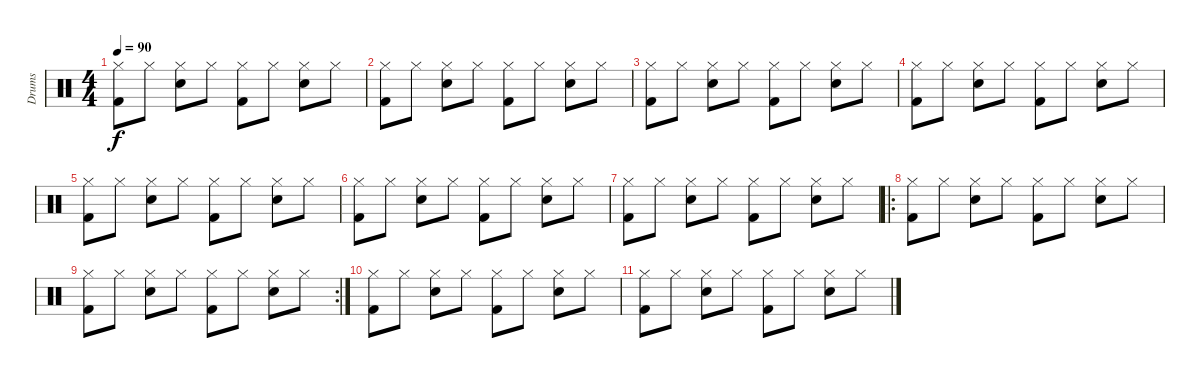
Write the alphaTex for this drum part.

\track ("Drums" "Drums") {instrument percussion}
\staff {score}
\articulation defaults
\ts (4 4)
\tempo 90
\clef neutral
\ks c
("Hi-Hat (closed)" "Kick (hit) 2").8{dy f} "Hi-Hat (closed)".8 ("Hi-Hat (closed)" "Snare (hit) 2").8 "Hi-Hat (closed)".8 ("Hi-Hat (closed)" "Kick (hit) 2").8 "Hi-Hat (closed)".8 ("Hi-Hat (closed)" "Snare (hit) 2").8 "Hi-Hat (closed)".8 |
("Hi-Hat (closed)" "Kick (hit) 2").8 "Hi-Hat (closed)".8 ("Hi-Hat (closed)" "Snare (hit) 2").8 "Hi-Hat (closed)".8 ("Hi-Hat (closed)" "Kick (hit) 2").8 "Hi-Hat (closed)".8 ("Hi-Hat (closed)" "Snare (hit) 2").8 "Hi-Hat (closed)".8 |
("Hi-Hat (closed)" "Kick (hit) 2").8 "Hi-Hat (closed)".8 ("Hi-Hat (closed)" "Snare (hit) 2").8 "Hi-Hat (closed)".8 ("Hi-Hat (closed)" "Kick (hit) 2").8 "Hi-Hat (closed)".8 ("Hi-Hat (closed)" "Snare (hit) 2").8 "Hi-Hat (closed)".8 |
("Hi-Hat (closed)" "Kick (hit) 2").8 "Hi-Hat (closed)".8 ("Hi-Hat (closed)" "Snare (hit) 2").8 "Hi-Hat (closed)".8 ("Hi-Hat (closed)" "Kick (hit) 2").8 "Hi-Hat (closed)".8 ("Hi-Hat (closed)" "Snare (hit) 2").8 "Hi-Hat (closed)".8 |
("Hi-Hat (closed)" "Kick (hit) 2").8 "Hi-Hat (closed)".8 ("Hi-Hat (closed)" "Snare (hit) 2").8 "Hi-Hat (closed)".8 ("Hi-Hat (closed)" "Kick (hit) 2").8 "Hi-Hat (closed)".8 ("Hi-Hat (closed)" "Snare (hit) 2").8 "Hi-Hat (closed)".8 |
("Hi-Hat (closed)" "Kick (hit) 2").8 "Hi-Hat (closed)".8 ("Hi-Hat (closed)" "Snare (hit) 2").8 "Hi-Hat (closed)".8 ("Hi-Hat (closed)" "Kick (hit) 2").8 "Hi-Hat (closed)".8 ("Hi-Hat (closed)" "Snare (hit) 2").8 "Hi-Hat (closed)".8 |
("Hi-Hat (closed)" "Kick (hit) 2").8 "Hi-Hat (closed)".8 ("Hi-Hat (closed)" "Snare (hit) 2").8 "Hi-Hat (closed)".8 ("Hi-Hat (closed)" "Kick (hit) 2").8 "Hi-Hat (closed)".8 ("Hi-Hat (closed)" "Snare (hit) 2").8 "Hi-Hat (closed)".8 |
\ro
("Hi-Hat (closed)" "Kick (hit) 2").8 "Hi-Hat (closed)".8 ("Hi-Hat (closed)" "Snare (hit) 2").8 "Hi-Hat (closed)".8 ("Hi-Hat (closed)" "Kick (hit) 2").8 "Hi-Hat (closed)".8 ("Hi-Hat (closed)" "Snare (hit) 2").8 "Hi-Hat (closed)".8 |
\rc 2
("Hi-Hat (closed)" "Kick (hit) 2").8 "Hi-Hat (closed)".8 ("Hi-Hat (closed)" "Snare (hit) 2").8 "Hi-Hat (closed)".8 ("Hi-Hat (closed)" "Kick (hit) 2").8 "Hi-Hat (closed)".8 ("Hi-Hat (closed)" "Snare (hit) 2").8 "Hi-Hat (closed)".8 |
("Hi-Hat (closed)" "Kick (hit) 2").8 "Hi-Hat (closed)".8 ("Hi-Hat (closed)" "Snare (hit) 2").8 "Hi-Hat (closed)".8 ("Hi-Hat (closed)" "Kick (hit) 2").8 "Hi-Hat (closed)".8 ("Hi-Hat (closed)" "Snare (hit) 2").8 "Hi-Hat (closed)".8 |
("Hi-Hat (closed)" "Kick (hit) 2").8 "Hi-Hat (closed)".8 ("Hi-Hat (closed)" "Snare (hit) 2").8 "Hi-Hat (closed)".8 ("Hi-Hat (closed)" "Kick (hit) 2").8 "Hi-Hat (closed)".8 ("Hi-Hat (closed)" "Snare (hit) 2").8 "Hi-Hat (closed)".8
